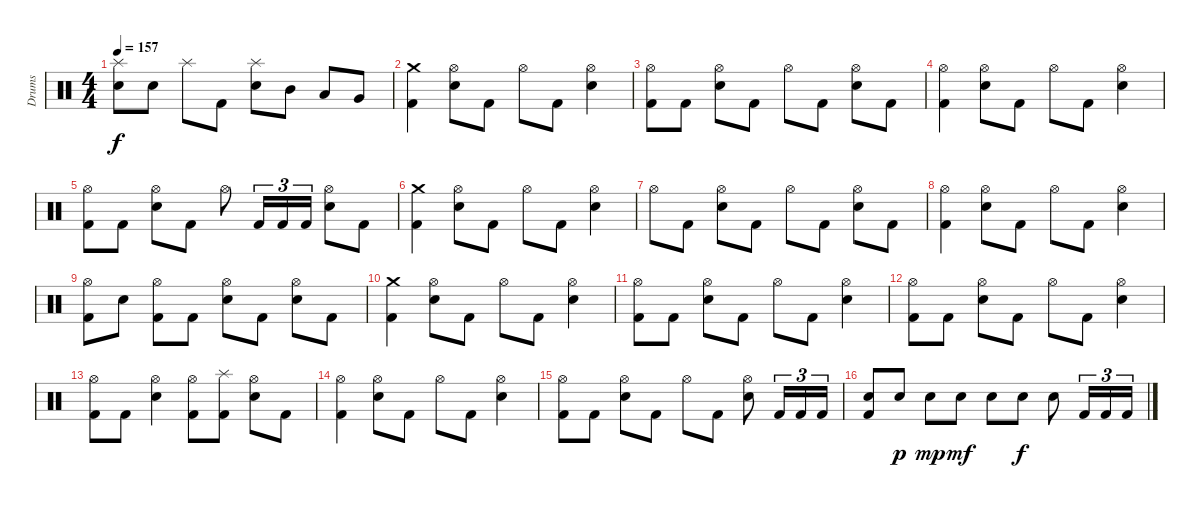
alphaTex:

\track ("Drums" "Drums") {instrument percussion}
\staff {score}
\articulation defaults
\ts (4 4)
\tempo 157
\clef neutral
\ks c
("Electric Snare (hit)" "Splash (hit)").8{dy f} "Electric Snare (hit)".8 "Splash (hit)".8 "Kick (hit) 2".8 ("Electric Snare (hit)" "Splash (hit)").8 "Mid Tom (hit)".8 "Low Tom (hit)".8 "Very Low Tom (hit)".8 |
("Kick (hit) 2" "Crash medium (hit)").4 ("Electric Snare (hit)" "Hi-Hat (open)").8 "Kick (hit) 2".8 "Hi-Hat (open)".8 "Kick (hit) 2".8 ("Electric Snare (hit)" "Hi-Hat (open)").4 |
("Kick (hit) 2" "Hi-Hat (open)").8 "Kick (hit) 2".8 ("Electric Snare (hit)" "Hi-Hat (open)").8 "Kick (hit) 2".8 "Hi-Hat (open)".8 "Kick (hit) 2".8 ("Electric Snare (hit)" "Hi-Hat (open)").8 "Kick (hit) 2".8 |
("Kick (hit) 2" "Hi-Hat (open)").4 ("Electric Snare (hit)" "Hi-Hat (open)").8 "Kick (hit) 2".8 "Hi-Hat (open)".8 "Kick (hit) 2".8 ("Electric Snare (hit)" "Hi-Hat (open)").4 |
("Kick (hit) 2" "Hi-Hat (open)").8 "Kick (hit) 2".8 ("Electric Snare (hit)" "Hi-Hat (open)").8 "Kick (hit) 2".8 "Hi-Hat (open)".8 "Kick (hit) 2".16{tu (3 2)} "Kick (hit) 2".16{tu (3 2)} "Kick (hit) 2".16{tu (3 2)} ("Electric Snare (hit)" "Hi-Hat (open)").8 "Kick (hit) 2".8 |
("Kick (hit) 2" "Crash medium (hit)").4 ("Electric Snare (hit)" "Hi-Hat (open)").8 "Kick (hit) 2".8 "Hi-Hat (open)".8 "Kick (hit) 2".8 ("Electric Snare (hit)" "Hi-Hat (open)").4 |
"Hi-Hat (open)".8 "Kick (hit) 2".8 ("Electric Snare (hit)" "Hi-Hat (open)").8 "Kick (hit) 2".8 "Hi-Hat (open)".8 "Kick (hit) 2".8 ("Electric Snare (hit)" "Hi-Hat (open)").8 "Kick (hit) 2".8 |
("Kick (hit) 2" "Hi-Hat (open)").4 ("Electric Snare (hit)" "Hi-Hat (open)").8 "Kick (hit) 2".8 "Hi-Hat (open)".8 "Kick (hit) 2".8 ("Electric Snare (hit)" "Hi-Hat (open)").4 |
("Kick (hit) 2" "Hi-Hat (open)").8 "Electric Snare (hit)".8 ("Kick (hit) 2" "Hi-Hat (open)").8 "Kick (hit) 2".8 ("Electric Snare (hit)" "Hi-Hat (open)").8 "Kick (hit) 2".8 ("Electric Snare (hit)" "Hi-Hat (open)").8 "Kick (hit) 2".8 |
("Kick (hit) 2" "Crash medium (hit)").4 ("Electric Snare (hit)" "Hi-Hat (open)").8 "Kick (hit) 2".8 "Hi-Hat (open)".8 "Kick (hit) 2".8 ("Electric Snare (hit)" "Hi-Hat (open)").4 |
("Kick (hit) 2" "Hi-Hat (open)").8 "Kick (hit) 2".8 ("Electric Snare (hit)" "Hi-Hat (open)").8 "Kick (hit) 2".8 "Hi-Hat (open)".8 "Kick (hit) 2".8 ("Electric Snare (hit)" "Hi-Hat (open)").4 |
("Kick (hit) 2" "Hi-Hat (open)").8 "Kick (hit) 2".8 ("Electric Snare (hit)" "Hi-Hat (open)").8 "Kick (hit) 2".8 "Hi-Hat (open)".8 "Kick (hit) 2".8 ("Electric Snare (hit)" "Hi-Hat (open)").4 |
("Kick (hit) 2" "Hi-Hat (open)").8 "Kick (hit) 2".8 ("Electric Snare (hit)" "Hi-Hat (open)").4 ("Kick (hit) 2" "Hi-Hat (open)").8 ("Kick (hit) 2" "Splash (hit)").8 ("Electric Snare (hit)" "Hi-Hat (open)").8 "Kick (hit) 2".8 |
("Kick (hit) 2" "Hi-Hat (open)").4 ("Electric Snare (hit)" "Hi-Hat (open)").8 "Kick (hit) 2".8 "Hi-Hat (open)".8 "Kick (hit) 2".8 ("Electric Snare (hit)" "Hi-Hat (open)").4 |
("Kick (hit) 2" "Hi-Hat (open)").8 "Kick (hit) 2".8 ("Electric Snare (hit)" "Hi-Hat (open)").8 "Kick (hit) 2".8 "Hi-Hat (open)".8 "Kick (hit) 2".8 ("Electric Snare (hit)" "Hi-Hat (open)").8 "Kick (hit) 2".16{tu (3 2)} "Kick (hit) 2".16{tu (3 2)} "Kick (hit) 2".16{tu (3 2)} |
("Kick (hit) 2" "Electric Snare (hit)").8 "Electric Snare (hit)".8{dy p} "Electric Snare (hit)".8{dy mp} "Electric Snare (hit)".8{dy mf} "Electric Snare (hit)".8 "Electric Snare (hit)".8{dy f} "Electric Snare (hit)".8 "Kick (hit) 2".16{tu (3 2)} "Kick (hit) 2".16{tu (3 2)} "Kick (hit) 2".16{tu (3 2)}
